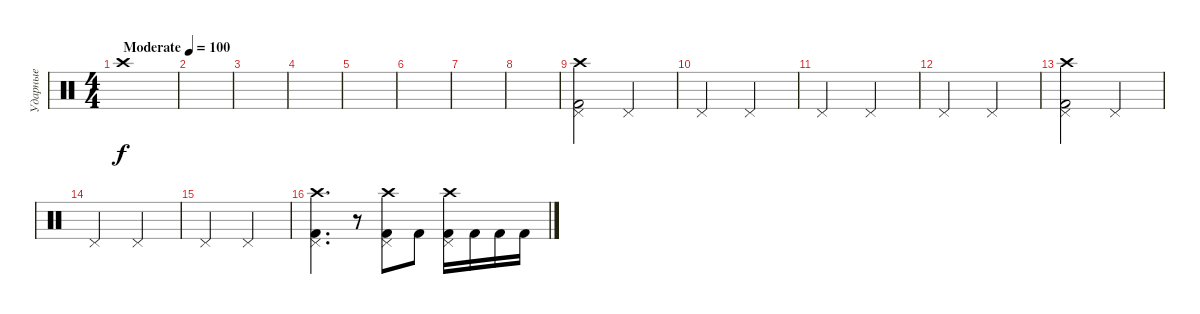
\track ("Ударные" "Ударные") {instrument percussion}
\staff {score}
\articulation defaults
\ts (4 4)
\tempo (100 "Moderate")
\clef neutral
\ks c "Crash high (hit)".1{dy f}
|
|
|
|
|
|
|
|
("Kick (hit) 2" "Crash high (hit)" "Pedal Hi-Hat (hit)").2 "Pedal Hi-Hat (hit)".2 |
"Pedal Hi-Hat (hit)".2 "Pedal Hi-Hat (hit)".2 |
"Pedal Hi-Hat (hit)".2 "Pedal Hi-Hat (hit)".2 |
"Pedal Hi-Hat (hit)".2 "Pedal Hi-Hat (hit)".2 |
("Kick (hit) 2" "Crash high (hit)" "Pedal Hi-Hat (hit)").2 "Pedal Hi-Hat (hit)".2 |
"Pedal Hi-Hat (hit)".2 "Pedal Hi-Hat (hit)".2 |
"Pedal Hi-Hat (hit)".2 "Pedal Hi-Hat (hit)".2 |
("Kick (hit) 2" "Crash high (hit)" "Pedal Hi-Hat (hit)").4{d} r.8 ("Kick (hit) 2" "Crash high (hit)" "Pedal Hi-Hat (hit)").8 "Kick (hit) 2".8 ("Kick (hit) 2" "Crash high (hit)" "Pedal Hi-Hat (hit)").16 "Kick (hit) 2".16 "Kick (hit) 2".16 "Kick (hit) 2".16
